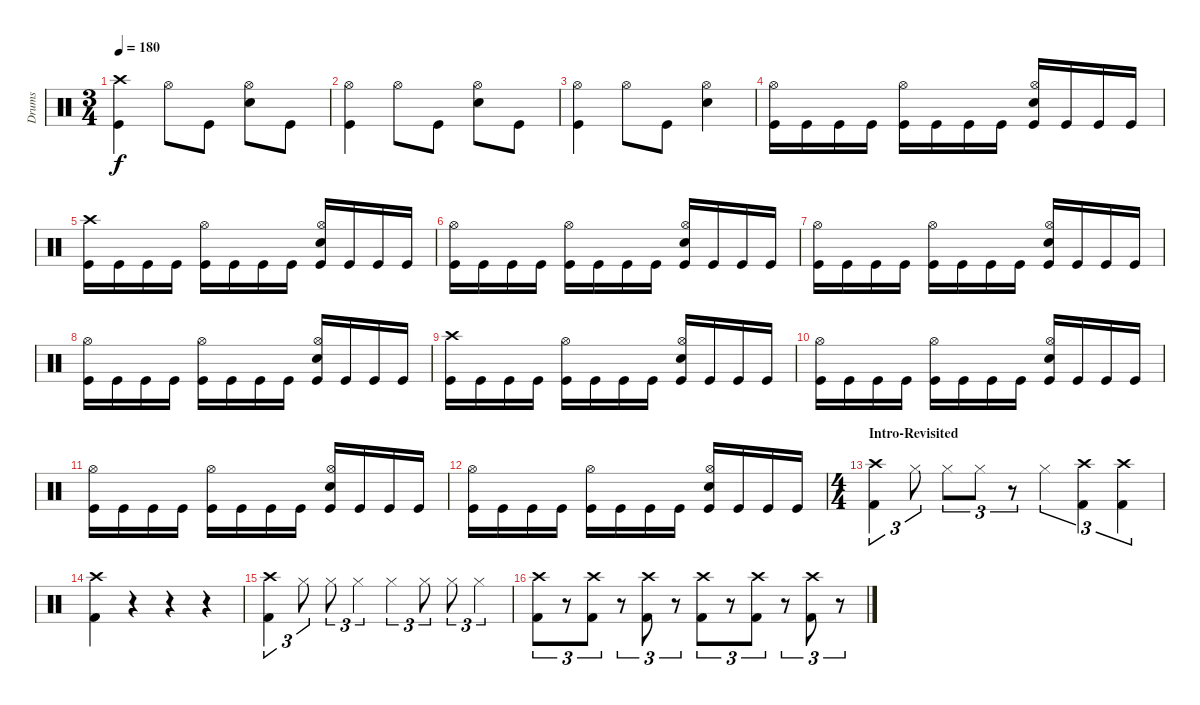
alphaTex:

\track ("Drums" "Drums") {instrument percussion}
\staff {score}
\articulation defaults
\ts (3 4)
\tempo 180
\clef neutral
\ks c
("Crash high (hit)" "Kick (hit)").4{dy f} "Hi-Hat (open)".8 "Kick (hit)".8 ("Hi-Hat (open)" "Snare (hit) 2").8 "Kick (hit)".8 |
("Hi-Hat (open)" "Kick (hit)").4 "Hi-Hat (open)".8 "Kick (hit)".8 ("Hi-Hat (open)" "Snare (hit) 2").8 "Kick (hit)".8 |
("Hi-Hat (open)" "Kick (hit)").4 "Hi-Hat (open)".8 "Kick (hit)".8 ("Hi-Hat (open)" "Snare (hit) 2").4 |
("Hi-Hat (open)" "Kick (hit)").16 "Kick (hit)".16 "Kick (hit)".16 "Kick (hit)".16 ("Hi-Hat (open)" "Kick (hit)").16 "Kick (hit)".16 "Kick (hit)".16 "Kick (hit)".16 ("Hi-Hat (open)" "Snare (hit) 2" "Kick (hit)").16 "Kick (hit)".16 "Kick (hit)".16 "Kick (hit)".16 |
("Crash high (hit)" "Kick (hit)").16 "Kick (hit)".16 "Kick (hit)".16 "Kick (hit)".16 ("Hi-Hat (open)" "Kick (hit)").16 "Kick (hit)".16 "Kick (hit)".16 "Kick (hit)".16 ("Hi-Hat (open)" "Snare (hit) 2" "Kick (hit)").16 "Kick (hit)".16 "Kick (hit)".16 "Kick (hit)".16 |
("Hi-Hat (open)" "Kick (hit)").16 "Kick (hit)".16 "Kick (hit)".16 "Kick (hit)".16 ("Hi-Hat (open)" "Kick (hit)").16 "Kick (hit)".16 "Kick (hit)".16 "Kick (hit)".16 ("Hi-Hat (open)" "Snare (hit) 2" "Kick (hit)").16 "Kick (hit)".16 "Kick (hit)".16 "Kick (hit)".16 |
("Hi-Hat (open)" "Kick (hit)").16 "Kick (hit)".16 "Kick (hit)".16 "Kick (hit)".16 ("Hi-Hat (open)" "Kick (hit)").16 "Kick (hit)".16 "Kick (hit)".16 "Kick (hit)".16 ("Hi-Hat (open)" "Snare (hit) 2" "Kick (hit)").16 "Kick (hit)".16 "Kick (hit)".16 "Kick (hit)".16 |
("Hi-Hat (open)" "Kick (hit)").16 "Kick (hit)".16 "Kick (hit)".16 "Kick (hit)".16 ("Hi-Hat (open)" "Kick (hit)").16 "Kick (hit)".16 "Kick (hit)".16 "Kick (hit)".16 ("Hi-Hat (open)" "Snare (hit) 2" "Kick (hit)").16 "Kick (hit)".16 "Kick (hit)".16 "Kick (hit)".16 |
("Crash high (hit)" "Kick (hit)").16 "Kick (hit)".16 "Kick (hit)".16 "Kick (hit)".16 ("Hi-Hat (open)" "Kick (hit)").16 "Kick (hit)".16 "Kick (hit)".16 "Kick (hit)".16 ("Hi-Hat (open)" "Snare (hit) 2" "Kick (hit)").16 "Kick (hit)".16 "Kick (hit)".16 "Kick (hit)".16 |
("Hi-Hat (open)" "Kick (hit)").16 "Kick (hit)".16 "Kick (hit)".16 "Kick (hit)".16 ("Hi-Hat (open)" "Kick (hit)").16 "Kick (hit)".16 "Kick (hit)".16 "Kick (hit)".16 ("Hi-Hat (open)" "Snare (hit) 2" "Kick (hit)").16 "Kick (hit)".16 "Kick (hit)".16 "Kick (hit)".16 |
("Hi-Hat (open)" "Kick (hit)").16 "Kick (hit)".16 "Kick (hit)".16 "Kick (hit)".16 ("Hi-Hat (open)" "Kick (hit)").16 "Kick (hit)".16 "Kick (hit)".16 "Kick (hit)".16 ("Hi-Hat (open)" "Snare (hit) 2" "Kick (hit)").16 "Kick (hit)".16 "Kick (hit)".16 "Kick (hit)".16 |
("Hi-Hat (open)" "Kick (hit)").16 "Kick (hit)".16 "Kick (hit)".16 "Kick (hit)".16 ("Hi-Hat (open)" "Kick (hit)").16 "Kick (hit)".16 "Kick (hit)".16 "Kick (hit)".16 ("Hi-Hat (open)" "Snare (hit) 2" "Kick (hit)").16 "Kick (hit)".16 "Kick (hit)".16 "Kick (hit)".16 |
\ts (4 4)
\section ("" "Intro-Revisited")
("Crash high (hit)" "Kick (hit) 2").4{tu (3 2)} "Hi-Hat (closed)".8{tu (3 2)} "Hi-Hat (closed)".8{tu (3 2)} "Hi-Hat (closed)".8{tu (3 2)} r.8{tu (3 2)} "Hi-Hat (closed)".4{tu (3 2)} ("Crash high (hit)" "Kick (hit) 2").4{tu (3 2)} ("Crash high (hit)" "Kick (hit) 2").4{tu (3 2)} |
("Crash high (hit)" "Kick (hit) 2").4 r.4 r.4 r.4 |
("Crash high (hit)" "Kick (hit) 2").4{tu (3 2)} "Hi-Hat (closed)".8{tu (3 2)} "Hi-Hat (closed)".8{tu (3 2)} "Hi-Hat (closed)".4{tu (3 2)} "Hi-Hat (closed)".4{tu (3 2)} "Hi-Hat (closed)".8{tu (3 2)} "Hi-Hat (closed)".8{tu (3 2)} "Hi-Hat (closed)".4{tu (3 2)} |
("Crash high (hit)" "Kick (hit) 2").8{tu (3 2)} r.8{tu (3 2)} ("Crash high (hit)" "Kick (hit) 2").8{tu (3 2)} r.8{tu (3 2)} ("Crash high (hit)" "Kick (hit) 2").8{tu (3 2)} r.8{tu (3 2)} ("Crash high (hit)" "Kick (hit) 2").8{tu (3 2)} r.8{tu (3 2)} ("Crash high (hit)" "Kick (hit) 2").8{tu (3 2)} r.8{tu (3 2)} ("Crash high (hit)" "Kick (hit) 2").8{tu (3 2)} r.8{tu (3 2)}
